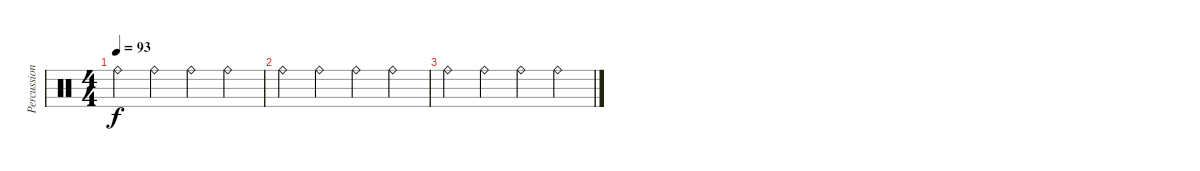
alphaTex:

\track ("Percussion" "Percussion") {instrument percussion}
\staff {score}
\articulation defaults
\ts (4 4)
\tempo 93
\clef neutral
\ks c "Ride (bell)".4{dy f} "Ride (bell)".4 "Ride (bell)".4 "Ride (bell)".4
|
"Ride (bell)".4 "Ride (bell)".4 "Ride (bell)".4 "Ride (bell)".4 |
"Ride (bell)".4 "Ride (bell)".4 "Ride (bell)".4 "Ride (bell)".4
